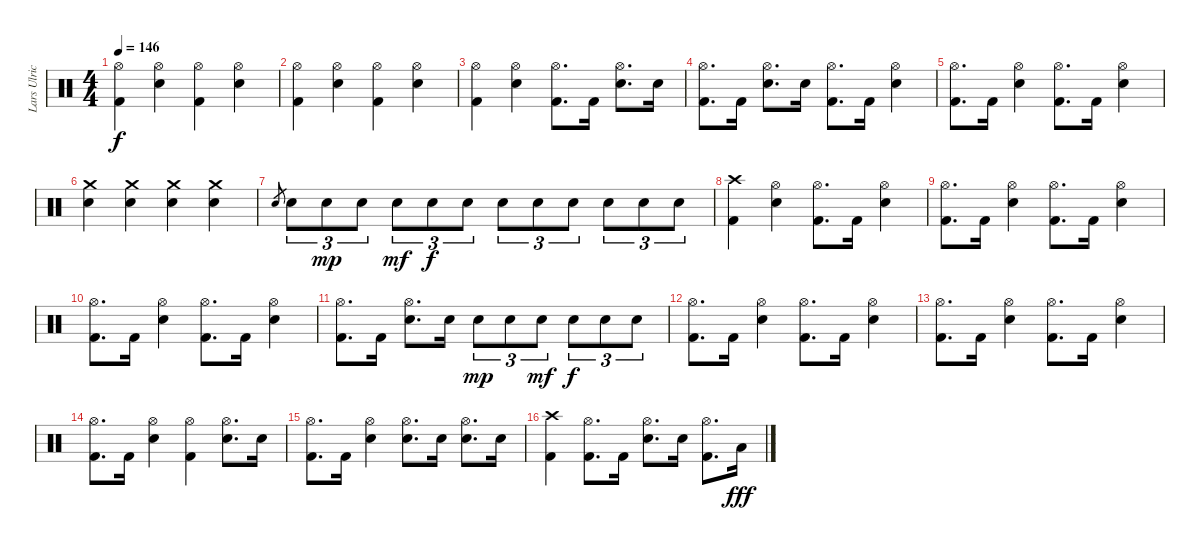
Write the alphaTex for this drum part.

\track ("Lars Ulrich" "Lars Ulric") {instrument percussion}
\staff {score}
\articulation defaults
\ts (4 4)
\tempo 146
\clef neutral
\ks c
("Hi-Hat (open)" "Kick (hit) 2").4{dy f} ("Hi-Hat (open)" "Electric Snare (hit)").4 ("Hi-Hat (open)" "Kick (hit) 2").4 ("Hi-Hat (open)" "Electric Snare (hit)").4 |
("Hi-Hat (open)" "Kick (hit) 2").4 ("Hi-Hat (open)" "Electric Snare (hit)").4 ("Hi-Hat (open)" "Kick (hit) 2").4 ("Hi-Hat (open)" "Electric Snare (hit)").4 |
("Hi-Hat (open)" "Kick (hit) 2").4 ("Hi-Hat (open)" "Electric Snare (hit)").4 ("Hi-Hat (open)" "Kick (hit) 2").8{d} "Kick (hit) 2".16 ("Hi-Hat (open)" "Electric Snare (hit)").8{d} "Electric Snare (hit)".16 |
("Hi-Hat (open)" "Kick (hit) 2").8{d} "Kick (hit) 2".16 ("Hi-Hat (open)" "Electric Snare (hit)").8{d} "Electric Snare (hit)".16 ("Hi-Hat (open)" "Kick (hit) 2").8{d} "Kick (hit) 2".16 ("Hi-Hat (open)" "Electric Snare (hit)").4 |
("Hi-Hat (open)" "Kick (hit) 2").8{d} "Kick (hit) 2".16 ("Hi-Hat (open)" "Electric Snare (hit)").4 ("Hi-Hat (open)" "Kick (hit) 2").8{d} "Kick (hit) 2".16 ("Hi-Hat (open)" "Electric Snare (hit)").4 |
("Crash medium (hit)" "Electric Snare (hit)").4 ("Crash medium (hit)" "Electric Snare (hit)").4 ("Crash medium (hit)" "Electric Snare (hit)").4 ("Crash medium (hit)" "Electric Snare (hit)").4 |
"Electric Snare (hit)".8{gr} "Electric Snare (hit)".8{tu (3 2)} "Electric Snare (hit)".8{tu (3 2) dy mp} "Electric Snare (hit)".8{tu (3 2)} "Electric Snare (hit)".8{tu (3 2) dy mf} "Electric Snare (hit)".8{tu (3 2) dy f} "Electric Snare (hit)".8{tu (3 2)} "Electric Snare (hit)".8{tu (3 2)} "Electric Snare (hit)".8{tu (3 2)} "Electric Snare (hit)".8{tu (3 2)} "Electric Snare (hit)".8{tu (3 2)} "Electric Snare (hit)".8{tu (3 2)} "Electric Snare (hit)".8{tu (3 2)} |
("Crash high (hit)" "Kick (hit) 2").4 ("Hi-Hat (open)" "Electric Snare (hit)").4 ("Hi-Hat (open)" "Kick (hit) 2").8{d} "Kick (hit) 2".16 ("Hi-Hat (open)" "Electric Snare (hit)").4 |
("Hi-Hat (open)" "Kick (hit) 2").8{d} "Kick (hit) 2".16 ("Hi-Hat (open)" "Electric Snare (hit)").4 ("Hi-Hat (open)" "Kick (hit) 2").8{d} "Kick (hit) 2".16 ("Hi-Hat (open)" "Electric Snare (hit)").4 |
("Hi-Hat (open)" "Kick (hit) 2").8{d} "Kick (hit) 2".16 ("Hi-Hat (open)" "Electric Snare (hit)").4 ("Hi-Hat (open)" "Kick (hit) 2").8{d} "Kick (hit) 2".16 ("Hi-Hat (open)" "Electric Snare (hit)").4 |
("Hi-Hat (open)" "Kick (hit) 2").8{d} "Kick (hit) 2".16 ("Hi-Hat (open)" "Electric Snare (hit)").8{d} "Electric Snare (hit)".16 "Electric Snare (hit)".8{tu (3 2) dy mp} "Electric Snare (hit)".8{tu (3 2)} "Electric Snare (hit)".8{tu (3 2) dy mf} "Electric Snare (hit)".8{tu (3 2) dy f} "Electric Snare (hit)".8{tu (3 2)} "Electric Snare (hit)".8{tu (3 2)} |
("Hi-Hat (open)" "Kick (hit) 2").8{d} "Kick (hit) 2".16 ("Hi-Hat (open)" "Electric Snare (hit)").4 ("Hi-Hat (open)" "Kick (hit) 2").8{d} "Kick (hit) 2".16 ("Hi-Hat (open)" "Electric Snare (hit)").4 |
("Hi-Hat (open)" "Kick (hit) 2").8{d} "Kick (hit) 2".16 ("Hi-Hat (open)" "Electric Snare (hit)").4 ("Hi-Hat (open)" "Kick (hit) 2").8{d} "Kick (hit) 2".16 ("Hi-Hat (open)" "Electric Snare (hit)").4 |
("Hi-Hat (open)" "Kick (hit) 2").8{d} "Kick (hit) 2".16 ("Hi-Hat (open)" "Electric Snare (hit)").4 ("Hi-Hat (open)" "Kick (hit) 2").4 ("Hi-Hat (open)" "Electric Snare (hit)").8{d} "Electric Snare (hit)".16 |
("Hi-Hat (open)" "Kick (hit) 2").8{d} "Kick (hit) 2".16 ("Hi-Hat (open)" "Electric Snare (hit)").4 ("Hi-Hat (open)" "Electric Snare (hit)").8{d} "Electric Snare (hit)".16 ("Hi-Hat (open)" "Electric Snare (hit)").8{d} "Electric Snare (hit)".16 |
("Crash high (hit)" "Kick (hit) 2").4 ("Hi-Hat (open)" "Kick (hit) 2").8{d} "Kick (hit) 2".16 ("Hi-Hat (open)" "Electric Snare (hit)").8{d} "Electric Snare (hit)".16 ("Hi-Hat (open)" "Kick (hit) 2").8{d} "Low Tom (hit)".16{dy fff}
